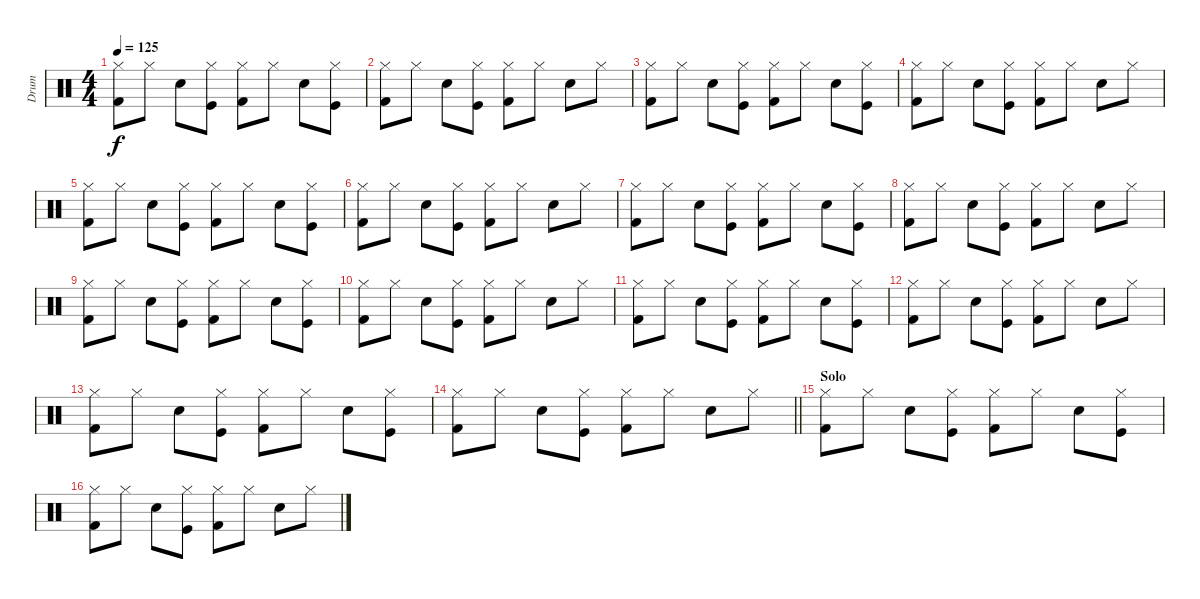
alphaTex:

\track ("Drum" "Drum") {instrument percussion}
\staff {score}
\articulation defaults
\ts (4 4)
\tempo 125
\clef neutral
\ks c
("Hi-Hat (closed)" "Kick (hit) 2").8{dy f} "Hi-Hat (closed)".8 "Electric Snare (hit)".8 ("Hi-Hat (closed)" "Kick (hit)").8 ("Hi-Hat (closed)" "Kick (hit) 2").8 "Hi-Hat (closed)".8 "Electric Snare (hit)".8 ("Hi-Hat (closed)" "Kick (hit)").8 |
("Hi-Hat (closed)" "Kick (hit) 2").8 "Hi-Hat (closed)".8 "Electric Snare (hit)".8 ("Hi-Hat (closed)" "Kick (hit)").8 ("Hi-Hat (closed)" "Kick (hit) 2").8 "Hi-Hat (closed)".8 "Electric Snare (hit)".8 "Hi-Hat (closed)".8 |
("Hi-Hat (closed)" "Kick (hit) 2").8 "Hi-Hat (closed)".8 "Electric Snare (hit)".8 ("Hi-Hat (closed)" "Kick (hit)").8 ("Hi-Hat (closed)" "Kick (hit) 2").8 "Hi-Hat (closed)".8 "Electric Snare (hit)".8 ("Hi-Hat (closed)" "Kick (hit)").8 |
("Hi-Hat (closed)" "Kick (hit) 2").8 "Hi-Hat (closed)".8 "Electric Snare (hit)".8 ("Hi-Hat (closed)" "Kick (hit)").8 ("Hi-Hat (closed)" "Kick (hit) 2").8 "Hi-Hat (closed)".8 "Electric Snare (hit)".8 "Hi-Hat (closed)".8 |
("Hi-Hat (closed)" "Kick (hit) 2").8 "Hi-Hat (closed)".8 "Electric Snare (hit)".8 ("Hi-Hat (closed)" "Kick (hit)").8 ("Hi-Hat (closed)" "Kick (hit) 2").8 "Hi-Hat (closed)".8 "Electric Snare (hit)".8 ("Hi-Hat (closed)" "Kick (hit)").8 |
("Hi-Hat (closed)" "Kick (hit) 2").8 "Hi-Hat (closed)".8 "Electric Snare (hit)".8 ("Hi-Hat (closed)" "Kick (hit)").8 ("Hi-Hat (closed)" "Kick (hit) 2").8 "Hi-Hat (closed)".8 "Electric Snare (hit)".8 "Hi-Hat (closed)".8 |
("Hi-Hat (closed)" "Kick (hit) 2").8 "Hi-Hat (closed)".8 "Electric Snare (hit)".8 ("Hi-Hat (closed)" "Kick (hit)").8 ("Hi-Hat (closed)" "Kick (hit) 2").8 "Hi-Hat (closed)".8 "Electric Snare (hit)".8 ("Hi-Hat (closed)" "Kick (hit)").8 |
("Hi-Hat (closed)" "Kick (hit) 2").8 "Hi-Hat (closed)".8 "Electric Snare (hit)".8 ("Hi-Hat (closed)" "Kick (hit)").8 ("Hi-Hat (closed)" "Kick (hit) 2").8 "Hi-Hat (closed)".8 "Electric Snare (hit)".8 "Hi-Hat (closed)".8 |
("Hi-Hat (closed)" "Kick (hit) 2").8 "Hi-Hat (closed)".8 "Electric Snare (hit)".8 ("Hi-Hat (closed)" "Kick (hit)").8 ("Hi-Hat (closed)" "Kick (hit) 2").8 "Hi-Hat (closed)".8 "Electric Snare (hit)".8 ("Hi-Hat (closed)" "Kick (hit)").8 |
("Hi-Hat (closed)" "Kick (hit) 2").8 "Hi-Hat (closed)".8 "Electric Snare (hit)".8 ("Hi-Hat (closed)" "Kick (hit)").8 ("Hi-Hat (closed)" "Kick (hit) 2").8 "Hi-Hat (closed)".8 "Electric Snare (hit)".8 "Hi-Hat (closed)".8 |
("Hi-Hat (closed)" "Kick (hit) 2").8 "Hi-Hat (closed)".8 "Electric Snare (hit)".8 ("Hi-Hat (closed)" "Kick (hit)").8 ("Hi-Hat (closed)" "Kick (hit) 2").8 "Hi-Hat (closed)".8 "Electric Snare (hit)".8 ("Hi-Hat (closed)" "Kick (hit)").8 |
("Hi-Hat (closed)" "Kick (hit) 2").8 "Hi-Hat (closed)".8 "Electric Snare (hit)".8 ("Hi-Hat (closed)" "Kick (hit)").8 ("Hi-Hat (closed)" "Kick (hit) 2").8 "Hi-Hat (closed)".8 "Electric Snare (hit)".8 "Hi-Hat (closed)".8 |
("Hi-Hat (closed)" "Kick (hit) 2").8 "Hi-Hat (closed)".8 "Electric Snare (hit)".8 ("Hi-Hat (closed)" "Kick (hit)").8 ("Hi-Hat (closed)" "Kick (hit) 2").8 "Hi-Hat (closed)".8 "Electric Snare (hit)".8 ("Hi-Hat (closed)" "Kick (hit)").8 |
\barLineRight lightlight
("Hi-Hat (closed)" "Kick (hit) 2").8 "Hi-Hat (closed)".8 "Electric Snare (hit)".8 ("Hi-Hat (closed)" "Kick (hit)").8 ("Hi-Hat (closed)" "Kick (hit) 2").8 "Hi-Hat (closed)".8 "Electric Snare (hit)".8 "Hi-Hat (closed)".8 |
\section ("" "Solo")
("Hi-Hat (closed)" "Kick (hit) 2").8 "Hi-Hat (closed)".8 "Electric Snare (hit)".8 ("Hi-Hat (closed)" "Kick (hit)").8 ("Hi-Hat (closed)" "Kick (hit) 2").8 "Hi-Hat (closed)".8 "Electric Snare (hit)".8 ("Hi-Hat (closed)" "Kick (hit)").8 |
("Hi-Hat (closed)" "Kick (hit) 2").8 "Hi-Hat (closed)".8 "Electric Snare (hit)".8 ("Hi-Hat (closed)" "Kick (hit)").8 ("Hi-Hat (closed)" "Kick (hit) 2").8 "Hi-Hat (closed)".8 "Electric Snare (hit)".8 "Hi-Hat (closed)".8
